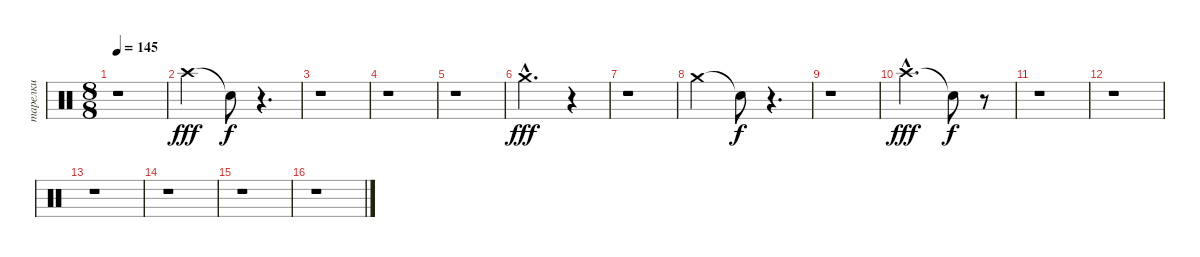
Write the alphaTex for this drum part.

\track ("тарелки" "тарелки") {instrument percussion}
\staff {score}
\articulation defaults
\ts (8 8)
\tempo 145
\clef neutral
\ks c
r.1{dy fff} |
"Crash high (hit)".2 "Snare (hit)"{t}.8{dy f} r.4{d} |
r.1 |
r.1 |
r.1 |
"Crash medium (hit)"{hac}.2{d dy fff} r.4 |
r.1 |
"Crash medium (hit)".2 "Snare (hit)"{t}.8{dy f} r.4{d} |
r.1 |
"Crash high (hit)"{hac}.2{d dy fff} "Snare (hit)"{t}.8{dy f} r.8 |
r.1 |
r.1 |
r.1 |
r.1 |
r.1 |
r.1
